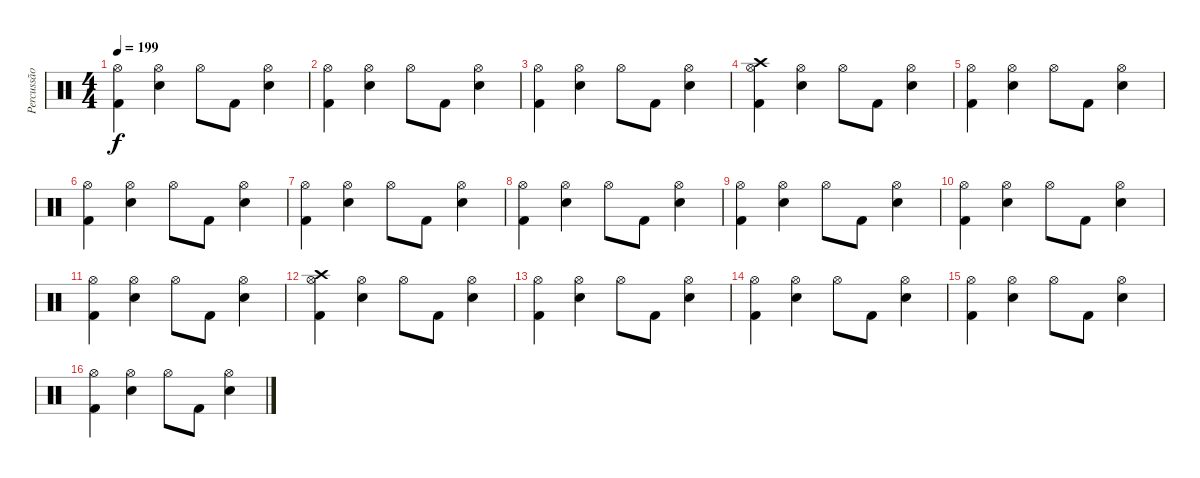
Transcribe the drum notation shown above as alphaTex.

\track ("Percussão" "Percussão") {instrument percussion}
\staff {score}
\articulation defaults
\ts (4 4)
\tempo 199
\clef neutral
\ks c
("Hi-Hat (open)" "Kick (hit) 2").4{dy f} ("Hi-Hat (open)" "Electric Snare (hit)").4 "Hi-Hat (open)".8 "Kick (hit) 2".8 ("Hi-Hat (open)" "Electric Snare (hit)").4 |
("Hi-Hat (open)" "Kick (hit) 2").4 ("Hi-Hat (open)" "Electric Snare (hit)").4 "Hi-Hat (open)".8 "Kick (hit) 2".8 ("Hi-Hat (open)" "Electric Snare (hit)").4 |
("Hi-Hat (open)" "Kick (hit) 2").4 ("Hi-Hat (open)" "Electric Snare (hit)").4 "Hi-Hat (open)".8 "Kick (hit) 2".8 ("Hi-Hat (open)" "Electric Snare (hit)").4 |
("Hi-Hat (open)" "Crash high (hit)" "Kick (hit) 2").4 ("Hi-Hat (open)" "Electric Snare (hit)").4 "Hi-Hat (open)".8 "Kick (hit) 2".8 ("Hi-Hat (open)" "Electric Snare (hit)").4 |
("Hi-Hat (open)" "Kick (hit) 2").4 ("Hi-Hat (open)" "Electric Snare (hit)").4 "Hi-Hat (open)".8 "Kick (hit) 2".8 ("Hi-Hat (open)" "Electric Snare (hit)").4 |
("Hi-Hat (open)" "Kick (hit) 2").4 ("Hi-Hat (open)" "Electric Snare (hit)").4 "Hi-Hat (open)".8 "Kick (hit) 2".8 ("Hi-Hat (open)" "Electric Snare (hit)").4 |
("Hi-Hat (open)" "Kick (hit) 2").4 ("Hi-Hat (open)" "Electric Snare (hit)").4 "Hi-Hat (open)".8 "Kick (hit) 2".8 ("Hi-Hat (open)" "Electric Snare (hit)").4 |
("Hi-Hat (open)" "Kick (hit) 2").4 ("Hi-Hat (open)" "Electric Snare (hit)").4 "Hi-Hat (open)".8 "Kick (hit) 2".8 ("Hi-Hat (open)" "Electric Snare (hit)").4 |
("Hi-Hat (open)" "Kick (hit) 2").4 ("Hi-Hat (open)" "Electric Snare (hit)").4 "Hi-Hat (open)".8 "Kick (hit) 2".8 ("Hi-Hat (open)" "Electric Snare (hit)").4 |
("Hi-Hat (open)" "Kick (hit) 2").4 ("Hi-Hat (open)" "Electric Snare (hit)").4 "Hi-Hat (open)".8 "Kick (hit) 2".8 ("Hi-Hat (open)" "Electric Snare (hit)").4 |
("Hi-Hat (open)" "Kick (hit) 2").4 ("Hi-Hat (open)" "Electric Snare (hit)").4 "Hi-Hat (open)".8 "Kick (hit) 2".8 ("Hi-Hat (open)" "Electric Snare (hit)").4 |
("Hi-Hat (open)" "Crash high (hit)" "Kick (hit) 2").4 ("Hi-Hat (open)" "Electric Snare (hit)").4 "Hi-Hat (open)".8 "Kick (hit) 2".8 ("Hi-Hat (open)" "Electric Snare (hit)").4 |
("Hi-Hat (open)" "Kick (hit) 2").4 ("Hi-Hat (open)" "Electric Snare (hit)").4 "Hi-Hat (open)".8 "Kick (hit) 2".8 ("Hi-Hat (open)" "Electric Snare (hit)").4 |
("Hi-Hat (open)" "Kick (hit) 2").4 ("Hi-Hat (open)" "Electric Snare (hit)").4 "Hi-Hat (open)".8 "Kick (hit) 2".8 ("Hi-Hat (open)" "Electric Snare (hit)").4 |
("Hi-Hat (open)" "Kick (hit) 2").4 ("Hi-Hat (open)" "Electric Snare (hit)").4 "Hi-Hat (open)".8 "Kick (hit) 2".8 ("Hi-Hat (open)" "Electric Snare (hit)").4 |
("Hi-Hat (open)" "Kick (hit) 2").4 ("Hi-Hat (open)" "Electric Snare (hit)").4 "Hi-Hat (open)".8 "Kick (hit) 2".8 ("Hi-Hat (open)" "Electric Snare (hit)").4
